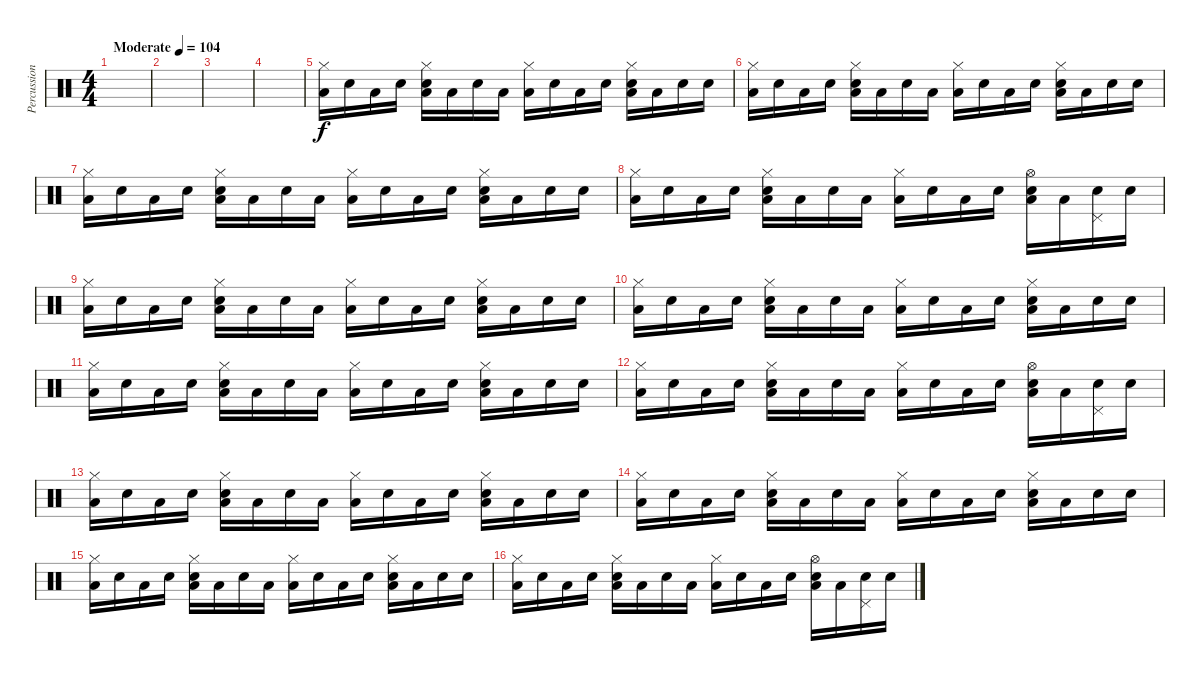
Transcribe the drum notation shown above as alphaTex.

\track ("Percussion" "Percussion") {instrument percussion}
\staff {score}
\articulation defaults
\ts (4 4)
\tempo (104 "Moderate")
\clef neutral
\ks c
|
|
|
|
("Low Floor Tom (hit)" "Hi-Hat (closed)").16 "Snare (hit)".16 "Low Floor Tom (hit)".16 "Snare (hit)".16 ("Low Floor Tom (hit)" "Hi-Hat (closed)" "Snare (hit) 2").16 "Low Floor Tom (hit)".16 "Snare (hit)".16 "Low Floor Tom (hit)".16 ("Low Floor Tom (hit)" "Hi-Hat (closed)").16 "Snare (hit)".16 "Low Floor Tom (hit)".16 "Snare (hit)".16 ("Low Floor Tom (hit)" "Hi-Hat (closed)" "Snare (hit) 2").16 "Low Floor Tom (hit)".16 "Snare (hit)".16 "Snare (hit)".16 |
("Low Floor Tom (hit)" "Hi-Hat (closed)").16 "Snare (hit)".16 "Low Floor Tom (hit)".16 "Snare (hit)".16 ("Low Floor Tom (hit)" "Hi-Hat (closed)" "Snare (hit) 2").16 "Low Floor Tom (hit)".16 "Snare (hit)".16 "Low Floor Tom (hit)".16 ("Low Floor Tom (hit)" "Hi-Hat (closed)").16 "Snare (hit)".16 "Low Floor Tom (hit)".16 "Snare (hit)".16 ("Low Floor Tom (hit)" "Hi-Hat (closed)" "Snare (hit) 2").16 "Low Floor Tom (hit)".16 "Snare (hit)".16 "Snare (hit)".16 |
("Low Floor Tom (hit)" "Hi-Hat (closed)").16 "Snare (hit)".16 "Low Floor Tom (hit)".16 "Snare (hit)".16 ("Low Floor Tom (hit)" "Hi-Hat (closed)" "Snare (hit) 2").16 "Low Floor Tom (hit)".16 "Snare (hit)".16 "Low Floor Tom (hit)".16 ("Low Floor Tom (hit)" "Hi-Hat (closed)").16 "Snare (hit)".16 "Low Floor Tom (hit)".16 "Snare (hit)".16 ("Low Floor Tom (hit)" "Hi-Hat (closed)" "Snare (hit) 2").16 "Low Floor Tom (hit)".16 "Snare (hit)".16 "Snare (hit)".16 |
("Low Floor Tom (hit)" "Hi-Hat (closed)").16 "Snare (hit)".16 "Low Floor Tom (hit)".16 "Snare (hit)".16 ("Low Floor Tom (hit)" "Hi-Hat (closed)" "Snare (hit) 2").16 "Low Floor Tom (hit)".16 "Snare (hit)".16 "Low Floor Tom (hit)".16 ("Low Floor Tom (hit)" "Hi-Hat (closed)").16 "Snare (hit)".16 "Low Floor Tom (hit)".16 "Snare (hit)".16 ("Low Floor Tom (hit)" "Hi-Hat (open)" "Snare (hit) 2").16 "Low Floor Tom (hit)".16 ("Snare (hit)" "Pedal Hi-Hat (hit)").16 "Snare (hit)".16 |
("Low Floor Tom (hit)" "Hi-Hat (closed)").16 "Snare (hit)".16 "Low Floor Tom (hit)".16 "Snare (hit)".16 ("Low Floor Tom (hit)" "Hi-Hat (closed)" "Snare (hit) 2").16 "Low Floor Tom (hit)".16 "Snare (hit)".16 "Low Floor Tom (hit)".16 ("Low Floor Tom (hit)" "Hi-Hat (closed)").16 "Snare (hit)".16 "Low Floor Tom (hit)".16 "Snare (hit)".16 ("Low Floor Tom (hit)" "Hi-Hat (closed)" "Snare (hit) 2").16 "Low Floor Tom (hit)".16 "Snare (hit)".16 "Snare (hit)".16 |
("Low Floor Tom (hit)" "Hi-Hat (closed)").16 "Snare (hit)".16 "Low Floor Tom (hit)".16 "Snare (hit)".16 ("Low Floor Tom (hit)" "Hi-Hat (closed)" "Snare (hit) 2").16 "Low Floor Tom (hit)".16 "Snare (hit)".16 "Low Floor Tom (hit)".16 ("Low Floor Tom (hit)" "Hi-Hat (closed)").16 "Snare (hit)".16 "Low Floor Tom (hit)".16 "Snare (hit)".16 ("Low Floor Tom (hit)" "Hi-Hat (closed)" "Snare (hit) 2").16 "Low Floor Tom (hit)".16 "Snare (hit)".16 "Snare (hit)".16 |
("Low Floor Tom (hit)" "Hi-Hat (closed)").16 "Snare (hit)".16 "Low Floor Tom (hit)".16 "Snare (hit)".16 ("Low Floor Tom (hit)" "Hi-Hat (closed)" "Snare (hit) 2").16 "Low Floor Tom (hit)".16 "Snare (hit)".16 "Low Floor Tom (hit)".16 ("Low Floor Tom (hit)" "Hi-Hat (closed)").16 "Snare (hit)".16 "Low Floor Tom (hit)".16 "Snare (hit)".16 ("Low Floor Tom (hit)" "Hi-Hat (closed)" "Snare (hit) 2").16 "Low Floor Tom (hit)".16 "Snare (hit)".16 "Snare (hit)".16 |
("Low Floor Tom (hit)" "Hi-Hat (closed)").16 "Snare (hit)".16 "Low Floor Tom (hit)".16 "Snare (hit)".16 ("Low Floor Tom (hit)" "Hi-Hat (closed)" "Snare (hit) 2").16 "Low Floor Tom (hit)".16 "Snare (hit)".16 "Low Floor Tom (hit)".16 ("Low Floor Tom (hit)" "Hi-Hat (closed)").16 "Snare (hit)".16 "Low Floor Tom (hit)".16 "Snare (hit)".16 ("Low Floor Tom (hit)" "Hi-Hat (open)" "Snare (hit) 2").16 "Low Floor Tom (hit)".16 ("Snare (hit)" "Pedal Hi-Hat (hit)").16 "Snare (hit)".16 |
("Low Floor Tom (hit)" "Hi-Hat (closed)").16 "Snare (hit)".16 "Low Floor Tom (hit)".16 "Snare (hit)".16 ("Low Floor Tom (hit)" "Hi-Hat (closed)" "Snare (hit) 2").16 "Low Floor Tom (hit)".16 "Snare (hit)".16 "Low Floor Tom (hit)".16 ("Low Floor Tom (hit)" "Hi-Hat (closed)").16 "Snare (hit)".16 "Low Floor Tom (hit)".16 "Snare (hit)".16 ("Low Floor Tom (hit)" "Hi-Hat (closed)" "Snare (hit) 2").16 "Low Floor Tom (hit)".16 "Snare (hit)".16 "Snare (hit)".16 |
("Low Floor Tom (hit)" "Hi-Hat (closed)").16 "Snare (hit)".16 "Low Floor Tom (hit)".16 "Snare (hit)".16 ("Low Floor Tom (hit)" "Hi-Hat (closed)" "Snare (hit) 2").16 "Low Floor Tom (hit)".16 "Snare (hit)".16 "Low Floor Tom (hit)".16 ("Low Floor Tom (hit)" "Hi-Hat (closed)").16 "Snare (hit)".16 "Low Floor Tom (hit)".16 "Snare (hit)".16 ("Low Floor Tom (hit)" "Hi-Hat (closed)" "Snare (hit) 2").16 "Low Floor Tom (hit)".16 "Snare (hit)".16 "Snare (hit)".16 |
("Low Floor Tom (hit)" "Hi-Hat (closed)").16 "Snare (hit)".16 "Low Floor Tom (hit)".16 "Snare (hit)".16 ("Low Floor Tom (hit)" "Hi-Hat (closed)" "Snare (hit) 2").16 "Low Floor Tom (hit)".16 "Snare (hit)".16 "Low Floor Tom (hit)".16 ("Low Floor Tom (hit)" "Hi-Hat (closed)").16 "Snare (hit)".16 "Low Floor Tom (hit)".16 "Snare (hit)".16 ("Low Floor Tom (hit)" "Hi-Hat (closed)" "Snare (hit) 2").16 "Low Floor Tom (hit)".16 "Snare (hit)".16 "Snare (hit)".16 |
("Low Floor Tom (hit)" "Hi-Hat (closed)").16 "Snare (hit)".16 "Low Floor Tom (hit)".16 "Snare (hit)".16 ("Low Floor Tom (hit)" "Hi-Hat (closed)" "Snare (hit) 2").16 "Low Floor Tom (hit)".16 "Snare (hit)".16 "Low Floor Tom (hit)".16 ("Low Floor Tom (hit)" "Hi-Hat (closed)").16 "Snare (hit)".16 "Low Floor Tom (hit)".16 "Snare (hit)".16 ("Low Floor Tom (hit)" "Hi-Hat (open)" "Snare (hit) 2").16 "Low Floor Tom (hit)".16 ("Snare (hit)" "Pedal Hi-Hat (hit)").16 "Snare (hit)".16
